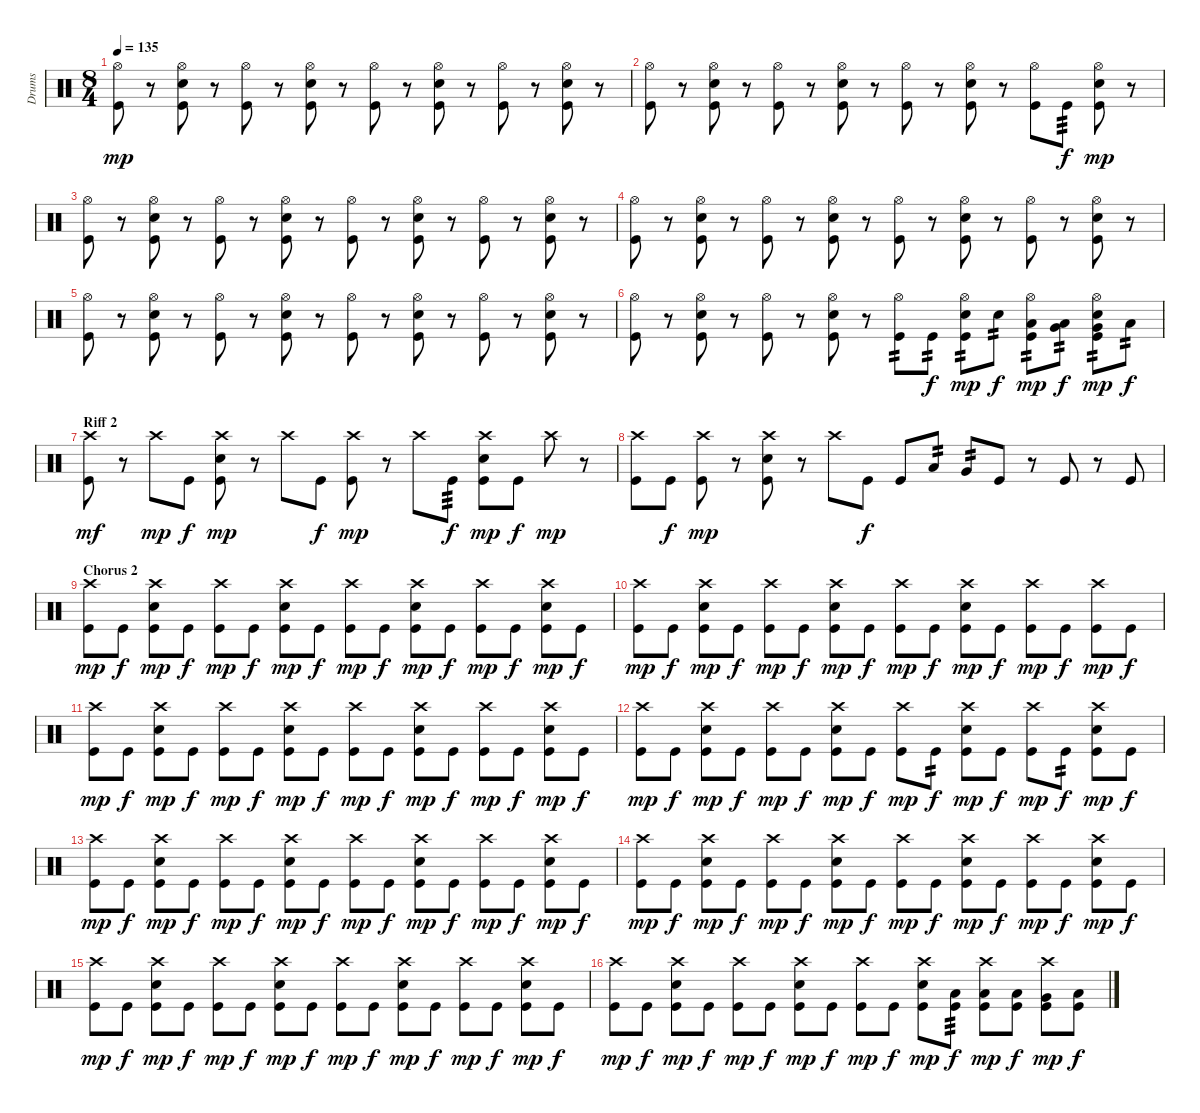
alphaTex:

\track ("Drums" "Drums") {instrument percussion}
\staff {score}
\articulation defaults
\ts (8 4)
\tempo 135
\clef neutral
\ks c
("Hi-Hat (open)" "Kick (hit)").8{dy mp} r.8 ("Hi-Hat (open)" "Electric Snare (hit)" "Kick (hit)").8 r.8 ("Hi-Hat (open)" "Kick (hit)").8 r.8 ("Hi-Hat (open)" "Electric Snare (hit)" "Kick (hit)").8 r.8 ("Hi-Hat (open)" "Kick (hit)").8 r.8 ("Hi-Hat (open)" "Electric Snare (hit)" "Kick (hit)").8 r.8 ("Hi-Hat (open)" "Kick (hit)").8 r.8 ("Hi-Hat (open)" "Electric Snare (hit)" "Kick (hit)").8 r.8 |
("Hi-Hat (open)" "Kick (hit)").8 r.8 ("Hi-Hat (open)" "Electric Snare (hit)" "Kick (hit)").8 r.8 ("Hi-Hat (open)" "Kick (hit)").8 r.8 ("Hi-Hat (open)" "Electric Snare (hit)" "Kick (hit)").8 r.8 ("Hi-Hat (open)" "Kick (hit)").8 r.8 ("Hi-Hat (open)" "Electric Snare (hit)" "Kick (hit)").8 r.8 ("Hi-Hat (open)" "Kick (hit)").8 "Kick (hit)".8{tp 3 dy f} ("Hi-Hat (open)" "Electric Snare (hit)" "Kick (hit)").8{dy mp} r.8 |
("Hi-Hat (open)" "Kick (hit)").8 r.8 ("Hi-Hat (open)" "Electric Snare (hit)" "Kick (hit)").8 r.8 ("Hi-Hat (open)" "Kick (hit)").8 r.8 ("Hi-Hat (open)" "Electric Snare (hit)" "Kick (hit)").8 r.8 ("Hi-Hat (open)" "Kick (hit)").8 r.8 ("Hi-Hat (open)" "Electric Snare (hit)" "Kick (hit)").8 r.8 ("Hi-Hat (open)" "Kick (hit)").8 r.8 ("Hi-Hat (open)" "Electric Snare (hit)" "Kick (hit)").8 r.8 |
("Hi-Hat (open)" "Kick (hit)").8 r.8 ("Hi-Hat (open)" "Electric Snare (hit)" "Kick (hit)").8 r.8 ("Hi-Hat (open)" "Kick (hit)").8 r.8 ("Hi-Hat (open)" "Electric Snare (hit)" "Kick (hit)").8 r.8 ("Hi-Hat (open)" "Kick (hit)").8 r.8 ("Hi-Hat (open)" "Electric Snare (hit)" "Kick (hit)").8 r.8 ("Hi-Hat (open)" "Kick (hit)").8 r.8 ("Hi-Hat (open)" "Electric Snare (hit)" "Kick (hit)").8 r.8 |
("Hi-Hat (open)" "Kick (hit)").8 r.8 ("Hi-Hat (open)" "Electric Snare (hit)" "Kick (hit)").8 r.8 ("Hi-Hat (open)" "Kick (hit)").8 r.8 ("Hi-Hat (open)" "Electric Snare (hit)" "Kick (hit)").8 r.8 ("Hi-Hat (open)" "Kick (hit)").8 r.8 ("Hi-Hat (open)" "Electric Snare (hit)" "Kick (hit)").8 r.8 ("Hi-Hat (open)" "Kick (hit)").8 r.8 ("Hi-Hat (open)" "Electric Snare (hit)" "Kick (hit)").8 r.8 |
("Hi-Hat (open)" "Kick (hit)").8 r.8 ("Hi-Hat (open)" "Electric Snare (hit)" "Kick (hit)").8 r.8 ("Hi-Hat (open)" "Kick (hit)").8 r.8 ("Hi-Hat (open)" "Electric Snare (hit)" "Kick (hit)").8 r.8 ("Hi-Hat (open)" "Kick (hit)").8{tp 2} "Kick (hit)".8{tp 2 dy f} ("Hi-Hat (open)" "Electric Snare (hit)" "Kick (hit)").8{tp 2 dy mp} "Electric Snare (hit)".8{tp 2 dy f} ("Hi-Hat (open)" "Low Tom (hit)" "Kick (hit)").8{tp 2 dy mp} ("Very Low Tom (hit)" "Low Tom (hit)").8{tp 2 dy f} ("Hi-Hat (open)" "Very Low Tom (hit)" "Electric Snare (hit)" "Kick (hit)").8{tp 2 dy mp} "Low Floor Tom (hit)".8{tp 2 dy f} |
\section ("" "Riff 2")
("Crash high (hit)" "Kick (hit)").8{dy mf} r.8 "Crash high (hit)".8{dy mp} "Kick (hit)".8{dy f} ("Crash high (hit)" "Electric Snare (hit)" "Kick (hit)").8{dy mp} r.8 "Crash high (hit)".8 "Kick (hit)".8{dy f} ("Crash high (hit)" "Kick (hit)").8{dy mp} r.8 "Crash high (hit)".8 "Kick (hit)".8{tp 3 dy f} ("Crash high (hit)" "Electric Snare (hit)" "Kick (hit)").8{dy mp} "Kick (hit)".8{dy f} "Crash high (hit)".8{dy mp} r.8 |
("Crash high (hit)" "Kick (hit)").8 "Kick (hit)".8{dy f} ("Crash high (hit)" "Kick (hit)").8{dy mp} r.8 ("Crash high (hit)" "Electric Snare (hit)" "Kick (hit)").8 r.8 "Crash high (hit)".8 "Kick (hit)".8{dy f} "Kick (hit)".8 "Low Tom (hit)".8{tp 2} "Very Low Tom (hit)".8{tp 2} "Kick (hit)".8 r.8 "Kick (hit)".8 r.8 "Kick (hit)".8 |
\section ("" "Chorus 2")
("Crash high (hit)" "Kick (hit)").8{dy mp} "Kick (hit)".8{dy f} ("Crash high (hit)" "Electric Snare (hit)" "Kick (hit)").8{dy mp} "Kick (hit)".8{dy f} ("Crash high (hit)" "Kick (hit)").8{dy mp} "Kick (hit)".8{dy f} ("Crash high (hit)" "Electric Snare (hit)" "Kick (hit)").8{dy mp} "Kick (hit)".8{dy f} ("Crash high (hit)" "Kick (hit)").8{dy mp} "Kick (hit)".8{dy f} ("Crash high (hit)" "Electric Snare (hit)" "Kick (hit)").8{dy mp} "Kick (hit)".8{dy f} ("Crash high (hit)" "Kick (hit)").8{dy mp} "Kick (hit)".8{dy f} ("Crash high (hit)" "Electric Snare (hit)" "Kick (hit)").8{dy mp} "Kick (hit)".8{dy f} |
("Crash high (hit)" "Kick (hit)").8{dy mp} "Kick (hit)".8{dy f} ("Crash high (hit)" "Electric Snare (hit)" "Kick (hit)").8{dy mp} "Kick (hit)".8{dy f} ("Crash high (hit)" "Kick (hit)").8{dy mp} "Kick (hit)".8{dy f} ("Crash high (hit)" "Electric Snare (hit)" "Kick (hit)").8{dy mp} "Kick (hit)".8{dy f} ("Crash high (hit)" "Kick (hit)").8{dy mp} "Kick (hit)".8{dy f} ("Crash high (hit)" "Electric Snare (hit)" "Kick (hit)").8{dy mp} "Kick (hit)".8{dy f} ("Crash high (hit)" "Kick (hit)").8{dy mp} "Kick (hit)".8{dy f} ("Crash high (hit)" "Kick (hit)").8{dy mp} "Kick (hit)".8{dy f} |
("Crash high (hit)" "Kick (hit)").8{dy mp} "Kick (hit)".8{dy f} ("Crash high (hit)" "Electric Snare (hit)" "Kick (hit)").8{dy mp} "Kick (hit)".8{dy f} ("Crash high (hit)" "Kick (hit)").8{dy mp} "Kick (hit)".8{dy f} ("Crash high (hit)" "Electric Snare (hit)" "Kick (hit)").8{dy mp} "Kick (hit)".8{dy f} ("Crash high (hit)" "Kick (hit)").8{dy mp} "Kick (hit)".8{dy f} ("Crash high (hit)" "Electric Snare (hit)" "Kick (hit)").8{dy mp} "Kick (hit)".8{dy f} ("Crash high (hit)" "Kick (hit)").8{dy mp} "Kick (hit)".8{dy f} ("Crash high (hit)" "Electric Snare (hit)" "Kick (hit)").8{dy mp} "Kick (hit)".8{dy f} |
("Crash high (hit)" "Kick (hit)").8{dy mp} "Kick (hit)".8{dy f} ("Crash high (hit)" "Electric Snare (hit)" "Kick (hit)").8{dy mp} "Kick (hit)".8{dy f} ("Crash high (hit)" "Kick (hit)").8{dy mp} "Kick (hit)".8{dy f} ("Crash high (hit)" "Electric Snare (hit)" "Kick (hit)").8{dy mp} "Kick (hit)".8{dy f} ("Crash high (hit)" "Kick (hit)").8{dy mp} "Kick (hit)".8{tp 2 dy f} ("Crash high (hit)" "Electric Snare (hit)" "Kick (hit)").8{dy mp} "Kick (hit)".8{dy f} ("Crash high (hit)" "Kick (hit)").8{dy mp} "Kick (hit)".8{tp 2 dy f} ("Crash high (hit)" "Electric Snare (hit)" "Kick (hit)").8{dy mp} "Kick (hit)".8{dy f} |
("Crash high (hit)" "Kick (hit)").8{dy mp} "Kick (hit)".8{dy f} ("Crash high (hit)" "Electric Snare (hit)" "Kick (hit)").8{dy mp} "Kick (hit)".8{dy f} ("Crash high (hit)" "Kick (hit)").8{dy mp} "Kick (hit)".8{dy f} ("Crash high (hit)" "Electric Snare (hit)" "Kick (hit)").8{dy mp} "Kick (hit)".8{dy f} ("Crash high (hit)" "Kick (hit)").8{dy mp} "Kick (hit)".8{dy f} ("Crash high (hit)" "Electric Snare (hit)" "Kick (hit)").8{dy mp} "Kick (hit)".8{dy f} ("Crash high (hit)" "Kick (hit)").8{dy mp} "Kick (hit)".8{dy f} ("Crash high (hit)" "Electric Snare (hit)" "Kick (hit)").8{dy mp} "Kick (hit)".8{dy f} |
("Crash high (hit)" "Kick (hit)").8{dy mp} "Kick (hit)".8{dy f} ("Crash high (hit)" "Electric Snare (hit)" "Kick (hit)").8{dy mp} "Kick (hit)".8{dy f} ("Crash high (hit)" "Kick (hit)").8{dy mp} "Kick (hit)".8{dy f} ("Crash high (hit)" "Electric Snare (hit)" "Kick (hit)").8{dy mp} "Kick (hit)".8{dy f} ("Crash high (hit)" "Kick (hit)").8{dy mp} "Kick (hit)".8{dy f} ("Crash high (hit)" "Electric Snare (hit)" "Kick (hit)").8{dy mp} "Kick (hit)".8{dy f} ("Crash high (hit)" "Kick (hit)").8{dy mp} "Kick (hit)".8{dy f} ("Crash high (hit)" "Electric Snare (hit)" "Kick (hit)").8{dy mp} "Kick (hit)".8{dy f} |
("Crash high (hit)" "Kick (hit)").8{dy mp} "Kick (hit)".8{dy f} ("Crash high (hit)" "Electric Snare (hit)" "Kick (hit)").8{dy mp} "Kick (hit)".8{dy f} ("Crash high (hit)" "Kick (hit)").8{dy mp} "Kick (hit)".8{dy f} ("Crash high (hit)" "Electric Snare (hit)" "Kick (hit)").8{dy mp} "Kick (hit)".8{dy f} ("Crash high (hit)" "Kick (hit)").8{dy mp} "Kick (hit)".8{dy f} ("Crash high (hit)" "Electric Snare (hit)" "Kick (hit)").8{dy mp} "Kick (hit)".8{dy f} ("Crash high (hit)" "Kick (hit)").8{dy mp} "Kick (hit)".8{dy f} ("Crash high (hit)" "Electric Snare (hit)" "Kick (hit)").8{dy mp} "Kick (hit)".8{dy f} |
("Crash high (hit)" "Kick (hit)").8{dy mp} "Kick (hit)".8{dy f} ("Crash high (hit)" "Electric Snare (hit)" "Kick (hit)").8{dy mp} "Kick (hit)".8{dy f} ("Crash high (hit)" "Kick (hit)").8{dy mp} "Kick (hit)".8{dy f} ("Crash high (hit)" "Electric Snare (hit)" "Kick (hit)").8{dy mp} "Kick (hit)".8{dy f} ("Crash high (hit)" "Kick (hit)").8{dy mp} "Kick (hit)".8{dy f} ("Crash high (hit)" "Electric Snare (hit)" "Kick (hit)").8{dy mp} ("Low Tom (hit)" "Kick (hit)").8{tp 3 dy f} ("Crash high (hit)" "Low Tom (hit)" "Kick (hit)").8{dy mp} ("Low Tom (hit)" "Kick (hit)").8{dy f} ("Crash high (hit)" "Very Low Tom (hit)" "Kick (hit)").8{dy mp} ("Low Floor Tom (hit)" "Kick (hit)").8{dy f}
